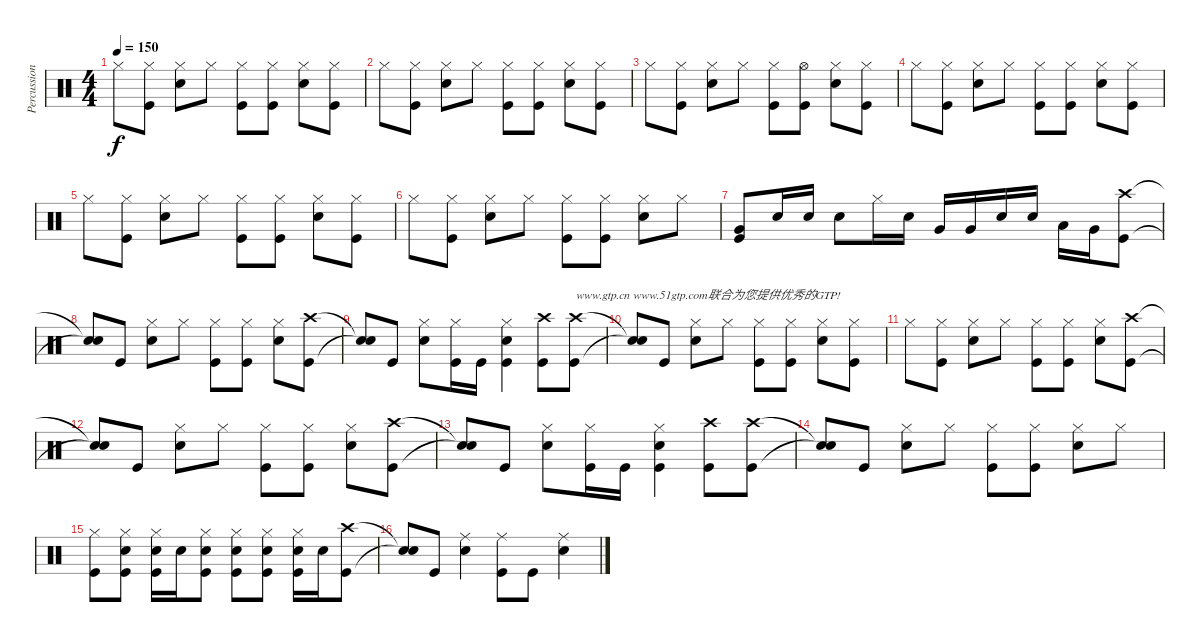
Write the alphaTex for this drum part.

\track ("Percussion" "Percussion") {instrument percussion}
\staff {score}
\articulation defaults
\ts (4 4)
\tempo 150
\clef neutral
\ks c "Hi-Hat (closed)".8{dy f}
("Hi-Hat (closed)" "Kick (hit)").8 ("Hi-Hat (closed)" "Electric Snare (hit)").8 "Hi-Hat (closed)".8 ("Hi-Hat (closed)" "Kick (hit)").8 ("Hi-Hat (closed)" "Kick (hit)").8 ("Hi-Hat (closed)" "Electric Snare (hit)").8 ("Hi-Hat (closed)" "Kick (hit)").8 |
"Hi-Hat (closed)".8 ("Hi-Hat (closed)" "Kick (hit)").8 ("Hi-Hat (closed)" "Electric Snare (hit)").8 "Hi-Hat (closed)".8 ("Hi-Hat (closed)" "Kick (hit)").8 ("Hi-Hat (closed)" "Kick (hit)").8 ("Hi-Hat (closed)" "Electric Snare (hit)").8 ("Hi-Hat (closed)" "Kick (hit)").8 |
"Hi-Hat (closed)".8 ("Hi-Hat (closed)" "Kick (hit)").8 ("Hi-Hat (closed)" "Electric Snare (hit)").8 "Hi-Hat (closed)".8 ("Hi-Hat (closed)" "Kick (hit)").8 ("Hi-Hat (open)" "Kick (hit)").8 ("Hi-Hat (closed)" "Electric Snare (hit)").8 ("Hi-Hat (closed)" "Kick (hit)").8 |
"Hi-Hat (closed)".8 ("Hi-Hat (closed)" "Kick (hit)").8 ("Hi-Hat (closed)" "Electric Snare (hit)").8 "Hi-Hat (closed)".8 ("Hi-Hat (closed)" "Kick (hit)").8 ("Hi-Hat (closed)" "Kick (hit)").8 ("Hi-Hat (closed)" "Electric Snare (hit)").8 ("Hi-Hat (closed)" "Kick (hit)").8 |
"Hi-Hat (closed)".8 ("Hi-Hat (closed)" "Kick (hit)").8 ("Hi-Hat (closed)" "Electric Snare (hit)").8 "Hi-Hat (closed)".8 ("Hi-Hat (closed)" "Kick (hit)").8 ("Hi-Hat (closed)" "Kick (hit)").8 ("Hi-Hat (closed)" "Electric Snare (hit)").8 ("Hi-Hat (closed)" "Kick (hit)").8 |
"Hi-Hat (closed)".8 ("Hi-Hat (closed)" "Kick (hit)").8 ("Hi-Hat (closed)" "Electric Snare (hit)").8 "Hi-Hat (closed)".8 ("Hi-Hat (closed)" "Kick (hit)").8 ("Hi-Hat (closed)" "Kick (hit)").8 ("Hi-Hat (closed)" "Electric Snare (hit)").8 "Hi-Hat (closed)".8 |
("Very Low Tom (hit)" "Kick (hit)").8 "Electric Snare (hit)".16 "Electric Snare (hit)".16 "Electric Snare (hit)".8 "Hi-Hat (closed)".16 "Electric Snare (hit)".16 "Very Low Tom (hit)".16 "Very Low Tom (hit)".16 "Electric Snare (hit)".16 "Electric Snare (hit)".16 "Low Tom (hit)".16 "Very Low Tom (hit)".16 ("Crash high (hit)" "Kick (hit)").8 |
("Snare (hit)"{t} "Snare (hit)"{t}).8 "Kick (hit)".8 ("Hi-Hat (closed)" "Electric Snare (hit)").8 "Hi-Hat (closed)".8 ("Hi-Hat (closed)" "Kick (hit)").8 ("Hi-Hat (closed)" "Kick (hit)").8 ("Hi-Hat (closed)" "Electric Snare (hit)").8 ("Crash high (hit)" "Kick (hit)").8 |
("Snare (hit)"{t} "Snare (hit)"{t}).8 "Kick (hit)".8 ("Hi-Hat (closed)" "Electric Snare (hit)").8 ("Hi-Hat (closed)" "Kick (hit)").16 "Kick (hit)".16 ("Hi-Hat (closed)" "Electric Snare (hit)" "Kick (hit)").4 ("Crash high (hit)" "Kick (hit)").8 ("Crash high (hit)" "Kick (hit)").8{txt "www.gtp.cn www.51gtp.com联合为您提供优秀的GTP!"} |
("Snare (hit)"{t} "Snare (hit)"{t}).8 "Kick (hit)".8 ("Hi-Hat (closed)" "Electric Snare (hit)").8 "Hi-Hat (closed)".8 ("Hi-Hat (closed)" "Kick (hit)").8 ("Hi-Hat (closed)" "Kick (hit)").8 ("Hi-Hat (closed)" "Electric Snare (hit)").8 ("Hi-Hat (closed)" "Kick (hit)").8 |
"Hi-Hat (closed)".8 ("Hi-Hat (closed)" "Kick (hit)").8 ("Hi-Hat (closed)" "Electric Snare (hit)").8 "Hi-Hat (closed)".8 ("Hi-Hat (closed)" "Kick (hit)").8 ("Hi-Hat (closed)" "Kick (hit)").8 ("Hi-Hat (closed)" "Electric Snare (hit)").8 ("Crash high (hit)" "Kick (hit)").8 |
("Snare (hit)"{t} "Snare (hit)"{t}).8 "Kick (hit)".8 ("Hi-Hat (closed)" "Electric Snare (hit)").8 "Hi-Hat (closed)".8 ("Hi-Hat (closed)" "Kick (hit)").8 ("Hi-Hat (closed)" "Kick (hit)").8 ("Hi-Hat (closed)" "Electric Snare (hit)").8 ("Crash high (hit)" "Kick (hit)").8 |
("Snare (hit)"{t} "Snare (hit)"{t}).8 "Kick (hit)".8 ("Hi-Hat (closed)" "Electric Snare (hit)").8 ("Hi-Hat (closed)" "Kick (hit)").16 "Kick (hit)".16 ("Hi-Hat (closed)" "Electric Snare (hit)" "Kick (hit)").4 ("Crash high (hit)" "Kick (hit)").8 ("Crash high (hit)" "Kick (hit)").8 |
("Snare (hit)"{t} "Snare (hit)"{t}).8 "Kick (hit)".8 ("Hi-Hat (closed)" "Electric Snare (hit)").8 "Hi-Hat (closed)".8 ("Hi-Hat (closed)" "Kick (hit)").8 ("Hi-Hat (closed)" "Kick (hit)").8 ("Hi-Hat (closed)" "Electric Snare (hit)").8 "Hi-Hat (closed)".8 |
("Hi-Hat (closed)" "Kick (hit)").8 ("Electric Snare (hit)" "Hi-Hat (closed)" "Kick (hit)").8 ("Electric Snare (hit)" "Hi-Hat (closed)" "Kick (hit)").16 "Electric Snare (hit)".16 ("Electric Snare (hit)" "Hi-Hat (closed)" "Kick (hit)").8 ("Electric Snare (hit)" "Hi-Hat (closed)" "Kick (hit)").8 ("Electric Snare (hit)" "Hi-Hat (closed)" "Kick (hit)").8 ("Electric Snare (hit)" "Hi-Hat (closed)" "Kick (hit)").16 "Electric Snare (hit)".16 ("Crash high (hit)" "Kick (hit)").8 |
("Snare (hit)"{t} "Snare (hit)"{t}).8 "Kick (hit)".8 ("Ride (middle)" "Electric Snare (hit)").4 ("Ride (middle)" "Kick (hit)").8 "Kick (hit)".8 ("Ride (middle)" "Electric Snare (hit)").4
